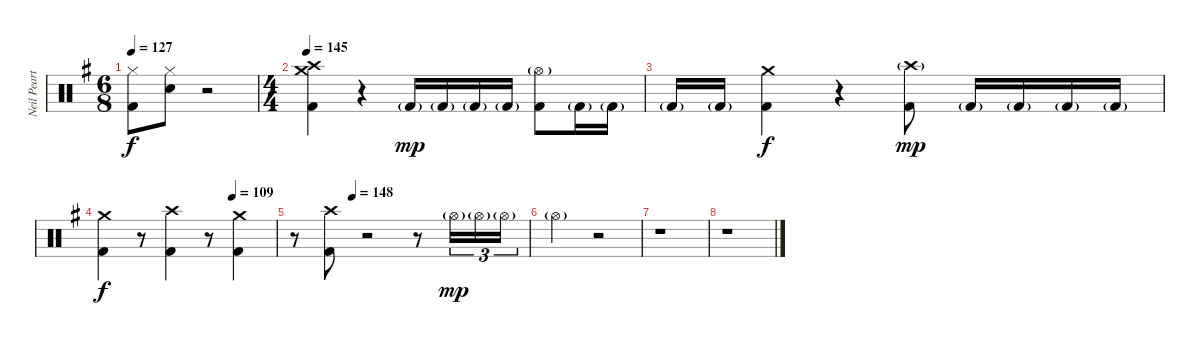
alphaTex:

\track ("Neil Peart (drums)" "Neil Peart") {instrument percussion}
\staff {score}
\articulation defaults
\ts (6 8)
\tempo 127
\clef neutral
\ks eminor
("Hi-Hat (closed)" "Kick (hit) 2").8{dy f} ("Hi-Hat (closed)" "Electric Snare (hit)").8 r.2 |
\ts (4 4)
\tempo 145
("Crash high (hit)" "Crash medium (hit)" "Kick (hit) 2").4 r.4 "Kick (hit) 2"{g}.16{dy mp} "Kick (hit) 2"{g}.16 "Kick (hit) 2"{g}.16 "Kick (hit) 2"{g}.16 ("Hi-Hat (open)"{g} "Kick (hit) 2").8 "Kick (hit) 2"{g}.16 "Kick (hit) 2"{g}.16 |
"Kick (hit) 2"{g}.16 "Kick (hit) 2"{g}.16 ("Crash medium (hit)" "Kick (hit) 2").4{dy f} r.4 ("Crash high (hit)"{g} "Kick (hit) 2").8{dy mp} "Kick (hit) 2"{g}.16 "Kick (hit) 2"{g}.16 "Kick (hit) 2"{g}.16 "Kick (hit) 2"{g}.16 |
\tempo (109 0.75)
("Crash medium (hit)" "Kick (hit) 2").4{dy f} r.8 ("Crash high (hit)" "Kick (hit) 2").4 r.8 ("Crash medium (hit)" "Kick (hit) 2").4 |
\tempo (148 0.25)
r.8 ("Crash high (hit)" "Kick (hit) 2").8 r.2 r.8 "Hi-Hat (open)"{g}.16{tu (3 2) dy mp} "Hi-Hat (open)"{g}.16{tu (3 2)} "Hi-Hat (open)"{g}.16{tu (3 2)} |
"Hi-Hat (open)"{g}.2 r.2{volume 0} |
r.1 |
r.1
